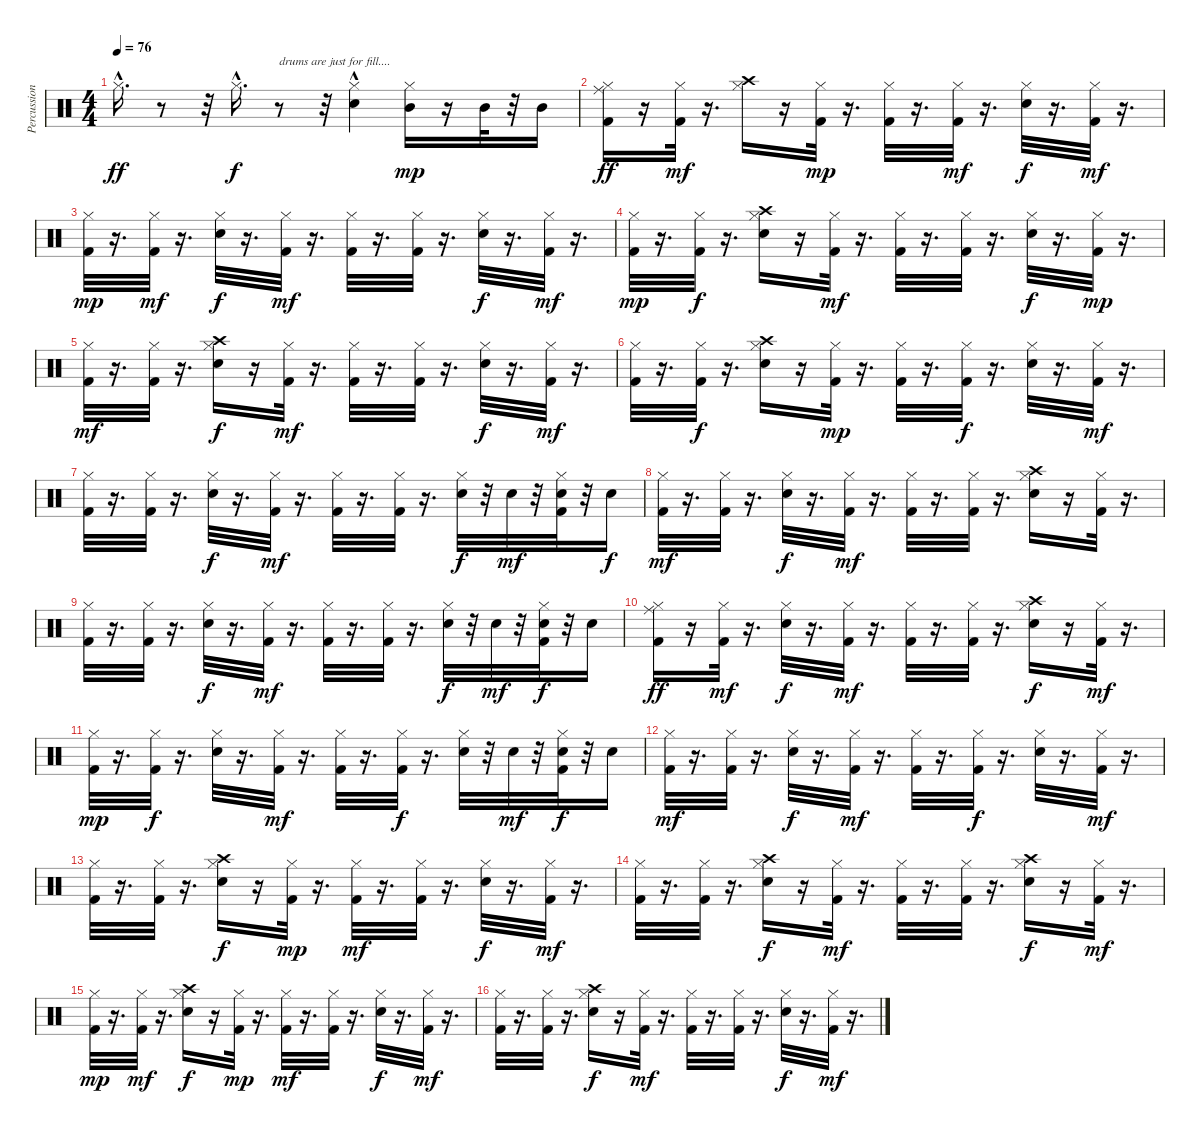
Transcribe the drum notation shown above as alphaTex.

\track ("Percussion Fill" "Percussion") {instrument percussion}
\staff {score}
\articulation defaults
\ts (4 4)
\tempo 76
\clef neutral
\ks c "Hi-Hat (closed)"{hac}.16{d dy ff}
r.8 r.32 "Hi-Hat (closed)"{hac}.16{d dy f} r.8{txt "drums are just for fill...."} r.32 ("Snare (hit) 2"{hac} "Hi-Hat (closed)").4 ("Hi-Hat (closed)" "Mid Tom (hit)").16{dy mp} r.16 "Mid Tom (hit)".32 r.32 "Mid Tom (hit)".16 |
("Kick (hit) 2" "Hi-Hat (closed)" "Ride (middle)").16{dy ff} r.16 ("Kick (hit) 2" "Hi-Hat (closed)").32{dy mf} r.16{d} ("Hi-Hat (closed)" "Crash high (hit)").16 r.16 ("Kick (hit) 2" "Hi-Hat (closed)").32{dy mp} r.16{d} ("Kick (hit) 2" "Hi-Hat (closed)").32 r.16{d} ("Kick (hit) 2" "Hi-Hat (closed)").32{dy mf} r.16{d} ("Snare (hit) 2" "Hi-Hat (closed)").32{dy f} r.16{d} ("Kick (hit) 2" "Hi-Hat (closed)").32{dy mf} r.16{d} |
("Kick (hit) 2" "Hi-Hat (closed)").32{dy mp} r.16{d} ("Kick (hit) 2" "Hi-Hat (closed)").32{dy mf} r.16{d} ("Snare (hit) 2" "Hi-Hat (closed)").32{dy f} r.16{d} ("Kick (hit) 2" "Hi-Hat (closed)").32{dy mf} r.16{d} ("Kick (hit) 2" "Hi-Hat (closed)").32 r.16{d} ("Kick (hit) 2" "Hi-Hat (closed)").32 r.16{d} ("Snare (hit) 2" "Hi-Hat (closed)").32{dy f} r.16{d} ("Kick (hit) 2" "Hi-Hat (closed)").32{dy mf} r.16{d} |
("Kick (hit) 2" "Hi-Hat (closed)").32{dy mp} r.16{d} ("Kick (hit) 2" "Hi-Hat (closed)").32{dy f} r.16{d} ("Snare (hit) 2" "Hi-Hat (closed)" "Crash high (hit)").16 r.16 ("Kick (hit) 2" "Hi-Hat (closed)").32{dy mf} r.16{d} ("Kick (hit) 2" "Hi-Hat (closed)").32 r.16{d} ("Kick (hit) 2" "Hi-Hat (closed)").32 r.16{d} ("Snare (hit) 2" "Hi-Hat (closed)").32{dy f} r.16{d} ("Kick (hit) 2" "Hi-Hat (closed)").32{dy mp} r.16{d} |
("Kick (hit) 2" "Hi-Hat (closed)").32{dy mf} r.16{d} ("Kick (hit) 2" "Hi-Hat (closed)").32 r.16{d} ("Snare (hit) 2" "Hi-Hat (closed)" "Crash high (hit)").16{dy f} r.16 ("Kick (hit) 2" "Hi-Hat (closed)").32{dy mf} r.16{d} ("Kick (hit) 2" "Hi-Hat (closed)").32 r.16{d} ("Kick (hit) 2" "Hi-Hat (closed)").32 r.16{d} ("Snare (hit) 2" "Hi-Hat (closed)").32{dy f} r.16{d} ("Kick (hit) 2" "Hi-Hat (closed)").32{dy mf} r.16{d} |
("Kick (hit) 2" "Hi-Hat (closed)").32 r.16{d} ("Kick (hit) 2" "Hi-Hat (closed)").32{dy f} r.16{d} ("Snare (hit) 2" "Hi-Hat (closed)" "Crash high (hit)").16 r.16 ("Kick (hit) 2" "Hi-Hat (closed)").32{dy mp} r.16{d} ("Kick (hit) 2" "Hi-Hat (closed)").32 r.16{d} ("Kick (hit) 2" "Hi-Hat (closed)").32{dy f} r.16{d} ("Snare (hit) 2" "Hi-Hat (closed)").32 r.16{d} ("Kick (hit) 2" "Hi-Hat (closed)").32{dy mf} r.16{d} |
("Kick (hit) 2" "Hi-Hat (closed)").32 r.16{d} ("Kick (hit) 2" "Hi-Hat (closed)").32 r.16{d} ("Snare (hit) 2" "Hi-Hat (closed)").32{dy f} r.16{d} ("Kick (hit) 2" "Hi-Hat (closed)").32{dy mf} r.16{d} ("Kick (hit) 2" "Hi-Hat (closed)").32 r.16{d} ("Kick (hit) 2" "Hi-Hat (closed)").32 r.16{d} ("Snare (hit) 2" "Hi-Hat (closed)").32{dy f} r.32 "Snare (hit) 2".32{dy mf} r.32 ("Kick (hit) 2" "Snare (hit) 2" "Hi-Hat (closed)").32 r.32 "Snare (hit) 2".16{dy f} |
("Kick (hit) 2" "Hi-Hat (closed)").32{dy mf} r.16{d} ("Kick (hit) 2" "Hi-Hat (closed)").32 r.16{d} ("Snare (hit) 2" "Hi-Hat (closed)").32{dy f} r.16{d} ("Kick (hit) 2" "Hi-Hat (closed)").32{dy mf} r.16{d} ("Kick (hit) 2" "Hi-Hat (closed)").32 r.16{d} ("Kick (hit) 2" "Hi-Hat (closed)").32 r.16{d} ("Snare (hit) 2" "Hi-Hat (closed)" "Crash high (hit)").16 r.16 ("Kick (hit) 2" "Hi-Hat (closed)").32 r.16{d} |
("Kick (hit) 2" "Hi-Hat (closed)").32 r.16{d} ("Kick (hit) 2" "Hi-Hat (closed)").32 r.16{d} ("Snare (hit) 2" "Hi-Hat (closed)").32{dy f} r.16{d} ("Kick (hit) 2" "Hi-Hat (closed)").32{dy mf} r.16{d} ("Kick (hit) 2" "Hi-Hat (closed)").32 r.16{d} ("Kick (hit) 2" "Hi-Hat (closed)").32 r.16{d} ("Snare (hit) 2" "Hi-Hat (closed)").32{dy f} r.32 "Snare (hit) 2".32{dy mf} r.32 ("Kick (hit) 2" "Snare (hit) 2" "Hi-Hat (closed)").32{dy f} r.32 "Snare (hit) 2".16 |
("Kick (hit) 2" "Hi-Hat (closed)" "Ride (middle)").16{dy ff} r.16 ("Kick (hit) 2" "Hi-Hat (closed)").32{dy mf} r.16{d} ("Snare (hit) 2" "Hi-Hat (closed)").32{dy f} r.16{d} ("Kick (hit) 2" "Hi-Hat (closed)").32{dy mf} r.16{d} ("Kick (hit) 2" "Hi-Hat (closed)").32 r.16{d} ("Kick (hit) 2" "Hi-Hat (closed)").32 r.16{d} ("Snare (hit) 2" "Hi-Hat (closed)" "Crash high (hit)").16{dy f} r.16 ("Kick (hit) 2" "Hi-Hat (closed)").32{dy mf} r.16{d} |
("Kick (hit) 2" "Hi-Hat (closed)").32{dy mp} r.16{d} ("Kick (hit) 2" "Hi-Hat (closed)").32{dy f} r.16{d} ("Snare (hit) 2" "Hi-Hat (closed)").32 r.16{d} ("Kick (hit) 2" "Hi-Hat (closed)").32{dy mf} r.16{d} ("Kick (hit) 2" "Hi-Hat (closed)").32 r.16{d} ("Kick (hit) 2" "Hi-Hat (closed)").32{dy f} r.16{d} ("Snare (hit) 2" "Hi-Hat (closed)").32 r.32 "Snare (hit) 2".32{dy mf} r.32 ("Kick (hit) 2" "Snare (hit) 2" "Hi-Hat (closed)").32{dy f} r.32 "Snare (hit) 2".16 |
("Kick (hit) 2" "Hi-Hat (closed)").32{dy mf} r.16{d} ("Kick (hit) 2" "Hi-Hat (closed)").32 r.16{d} ("Snare (hit) 2" "Hi-Hat (closed)").32{dy f} r.16{d} ("Kick (hit) 2" "Hi-Hat (closed)").32{dy mf} r.16{d} ("Kick (hit) 2" "Hi-Hat (closed)").32 r.16{d} ("Kick (hit) 2" "Hi-Hat (closed)").32{dy f} r.16{d} ("Snare (hit) 2" "Hi-Hat (closed)").32 r.16{d} ("Kick (hit) 2" "Hi-Hat (closed)").32{dy mf} r.16{d} |
("Kick (hit) 2" "Hi-Hat (closed)").32 r.16{d} ("Kick (hit) 2" "Hi-Hat (closed)").32 r.16{d} ("Snare (hit) 2" "Hi-Hat (closed)" "Crash high (hit)").16{dy f} r.16 ("Kick (hit) 2" "Hi-Hat (closed)").32{dy mp} r.16{d} ("Kick (hit) 2" "Hi-Hat (closed)").32{dy mf} r.16{d} ("Kick (hit) 2" "Hi-Hat (closed)").32 r.16{d} ("Snare (hit) 2" "Hi-Hat (closed)").32{dy f} r.16{d} ("Kick (hit) 2" "Hi-Hat (closed)").32{dy mf} r.16{d} |
("Kick (hit) 2" "Hi-Hat (closed)").32 r.16{d} ("Kick (hit) 2" "Hi-Hat (closed)").32 r.16{d} ("Snare (hit) 2" "Hi-Hat (closed)" "Crash high (hit)").16{dy f} r.16 ("Kick (hit) 2" "Hi-Hat (closed)").32{dy mf} r.16{d} ("Kick (hit) 2" "Hi-Hat (closed)").32 r.16{d} ("Kick (hit) 2" "Hi-Hat (closed)").32 r.16{d} ("Snare (hit) 2" "Hi-Hat (closed)" "Crash high (hit)").16{dy f} r.16 ("Kick (hit) 2" "Hi-Hat (closed)").32{dy mf} r.16{d} |
("Kick (hit) 2" "Hi-Hat (closed)").32{dy mp} r.16{d} ("Kick (hit) 2" "Hi-Hat (closed)").32{dy mf} r.16{d} ("Snare (hit) 2" "Hi-Hat (closed)" "Crash high (hit)").16{dy f} r.16 ("Kick (hit) 2" "Hi-Hat (closed)").32{dy mp} r.16{d} ("Kick (hit) 2" "Hi-Hat (closed)").32{dy mf} r.16{d} ("Kick (hit) 2" "Hi-Hat (closed)").32 r.16{d} ("Snare (hit) 2" "Hi-Hat (closed)").32{dy f} r.16{d} ("Kick (hit) 2" "Hi-Hat (closed)").32{dy mf} r.16{d} |
("Kick (hit) 2" "Hi-Hat (closed)").32 r.16{d} ("Kick (hit) 2" "Hi-Hat (closed)").32 r.16{d} ("Snare (hit) 2" "Hi-Hat (closed)" "Crash high (hit)").16{dy f} r.16 ("Kick (hit) 2" "Hi-Hat (closed)").32{dy mf} r.16{d} ("Kick (hit) 2" "Hi-Hat (closed)").32 r.16{d} ("Kick (hit) 2" "Hi-Hat (closed)").32 r.16{d} ("Snare (hit) 2" "Hi-Hat (closed)").32{dy f} r.16{d} ("Kick (hit) 2" "Hi-Hat (closed)").32{dy mf} r.16{d}
